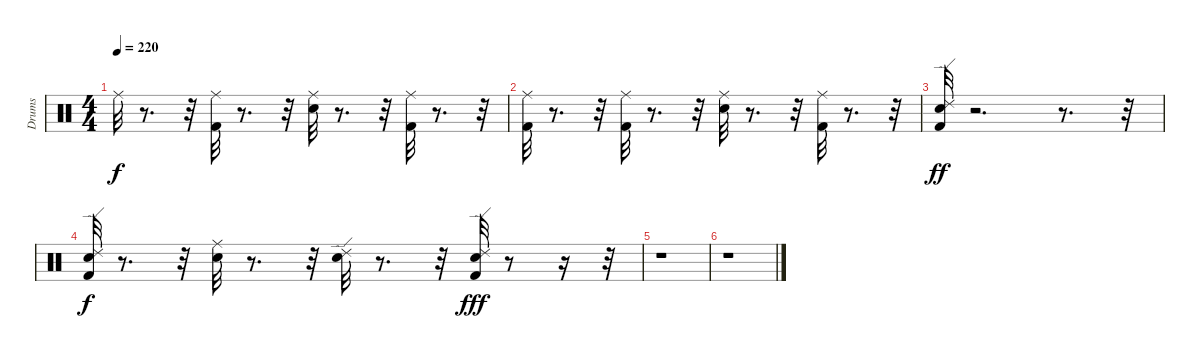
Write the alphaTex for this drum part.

\track ("Drums" "Drums") {instrument percussion}
\staff {score}
\articulation defaults
\ts (4 4)
\tempo 220
\clef neutral
\ks c "Ride (middle)".32{dy f}
r.8{d} r.32 ("Kick (hit) 2" "Ride (middle)").32 r.8{d} r.32 ("Ride (middle)" "Snare (hit) 2").32 r.8{d} r.32 ("Kick (hit) 2" "Ride (middle)").32 r.8{d} r.32 |
("Kick (hit) 2" "Ride (middle)").32 r.8{d} r.32 ("Ride (middle)" "Kick (hit) 2").32 r.8{d} r.32 ("Ride (middle)" "Snare (hit) 2").32 r.8{d} r.32 ("Ride (middle)" "Kick (hit) 2").32 r.8{d} r.32 |
("Snare (hit) 2" "Ride (edge) 2" "Kick (hit) 2").32{dy ff} r.2{d} r.8{d} r.32 |
("Ride (edge) 2" "Snare (hit) 2" "Kick (hit) 2").32{dy f} r.8{d} r.32 ("Snare (hit) 2" "Ride (middle)").32 r.8{d} r.32 ("Ride (edge) 2" "Snare (hit) 2").32 r.8{d} r.32 ("Kick (hit) 2" "Ride (edge) 2" "Snare (hit) 2").32{dy fff} r.8 r.16 r.32 |
r.1 |
r.1
